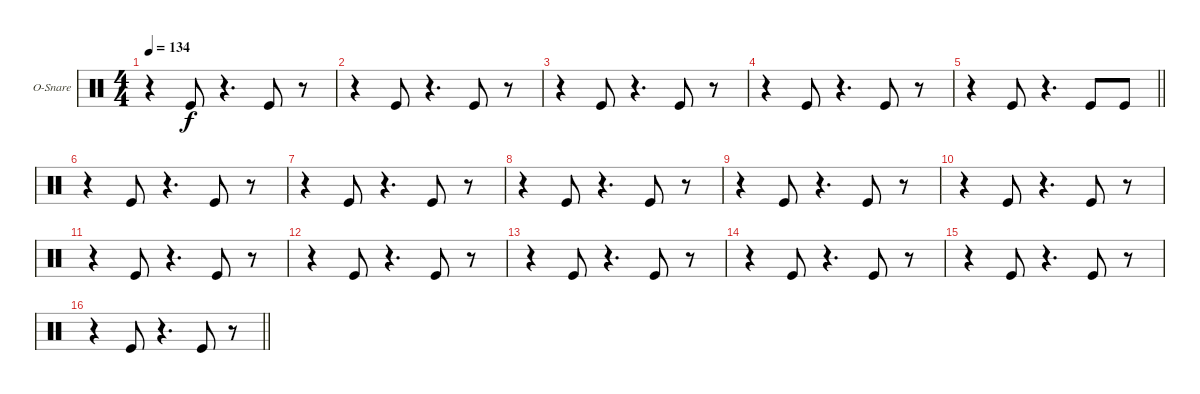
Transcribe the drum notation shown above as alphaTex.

\bracketExtendMode groupsimilarinstruments
\firstSystemTrackNameOrientation horizontal
\otherSystemsTrackNameOrientation horizontal
\track ("Open Snare" "O-Snare") {instrument percussion}
\staff {score}
\articulation defaults
\ts (4 4)
\scale
0.206316
\tempo 134
\accidentals auto
\clef neutral
\ottava regular
\simile none
\scale
0.25
\ks c
r.4{dy f} "Kick (hit)".8 r.4{d} "Kick (hit)".8 r.8 |
\scale
0.185263
\scale
0.25 r.4 "Kick (hit)".8 r.4{d} "Kick (hit)".8 r.8 |
\scale
0.304211
\scale
0.25 r.4 "Kick (hit)".8 r.4{d} "Kick (hit)".8 r.8 |
\scale
0.304211
\scale
0.25 r.4 "Kick (hit)".8 r.4{d} "Kick (hit)".8 r.8 |
\scale
0.244613
\scale
0.25
\barLineRight lightlight
r.4 "Kick (hit)".8 r.4{d} "Kick (hit)".8 "Kick (hit)".8 |
\scale
0.244613
\scale
0.25 r.4 "Kick (hit)".8 r.4{d} "Kick (hit)".8 r.8 |
\scale
0.26616
\scale
0.25 r.4 "Kick (hit)".8 r.4{d} "Kick (hit)".8 r.8 |
\scale
0.244613
\scale
0.25 r.4 "Kick (hit)".8 r.4{d} "Kick (hit)".8 r.8 |
\scale
0.220497
\scale
0.25 r.4 "Kick (hit)".8 r.4{d} "Kick (hit)".8 r.8 |
\scale
0.279503
\scale
0.25 r.4 "Kick (hit)".8 r.4{d} "Kick (hit)".8 r.8 |
\scale
0.220497
\scale
0.25 r.4 "Kick (hit)".8 r.4{d} "Kick (hit)".8 r.8 |
\scale
0.279503
\scale
0.25 r.4 "Kick (hit)".8 r.4{d} "Kick (hit)".8 r.8 |
\scale
0.208211
\scale
0.25 r.4 "Kick (hit)".8 r.4{d} "Kick (hit)".8 r.8 |
\scale
0.26393
\scale
0.25 r.4 "Kick (hit)".8 r.4{d} "Kick (hit)".8 r.8 |
\scale
0.26393
\scale
0.25 r.4 "Kick (hit)".8 r.4{d} "Kick (hit)".8 r.8 |
\scale
0.26393
\scale
0.25
\barLineRight lightlight
r.4 "Kick (hit)".8 r.4{d} "Kick (hit)".8 r.8
